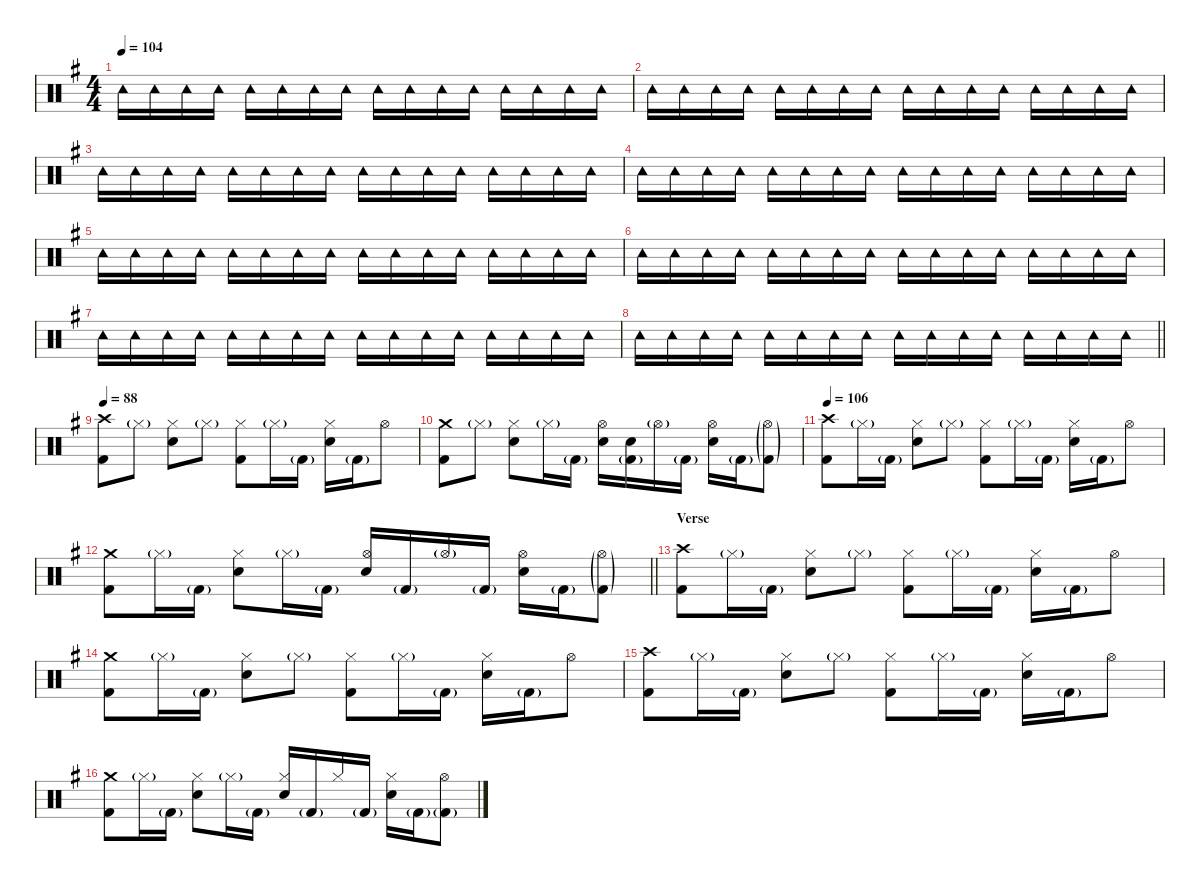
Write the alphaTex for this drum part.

\defaultSystemsLayout 4
\hideDynamics
\bracketExtendMode nobrackets
\singleTrackTrackNamePolicy hidden
\multiTrackTrackNamePolicy hidden
\firstSystemTrackNameMode fullname
\firstSystemTrackNameOrientation horizontal
\otherSystemsTrackNameOrientation horizontal
\track ("Bill" "drm.") {instrument percussion}
\staff {score}
\articulation defaults
\ts (4 4)
\tempo 104
\clef neutral
\ks eminor "Tambourine (hit)"{acc forcenatural}.16{dy mp beam Down} "Tambourine (hit)"{acc forcenatural}.16{dy pp beam Down} "Tambourine (hit)"{acc forcenatural}.16{dy p beam Down} "Tambourine (hit)"{acc forcenatural}.16{dy pp beam Down} "Tambourine (hit)"{acc forcenatural}.16{dy mp beam Down} "Tambourine (hit)"{acc forcenatural}.16{dy pp beam Down} "Tambourine (hit)"{acc forcenatural}.16{dy p beam Down} "Tambourine (hit)"{acc forcenatural}.16{dy pp beam Down} "Tambourine (hit)"{acc forcenatural}.16{dy mp beam Down} "Tambourine (hit)"{acc forcenatural}.16{dy pp beam Down} "Tambourine (hit)"{acc forcenatural}.16{dy p beam Down} "Tambourine (hit)"{acc forcenatural}.16{dy pp beam Down} "Tambourine (hit)"{acc forcenatural}.16{dy mp beam Down} "Tambourine (hit)"{acc forcenatural}.16{dy pp beam Down} "Tambourine (hit)"{acc forcenatural}.16{dy p beam Down} "Tambourine (hit)"{acc forcenatural}.16{dy pp beam Down}
|
"Tambourine (hit)"{acc forcenatural}.16{dy mp beam Down} "Tambourine (hit)"{acc forcenatural}.16{dy pp beam Down} "Tambourine (hit)"{acc forcenatural}.16{dy p beam Down} "Tambourine (hit)"{acc forcenatural}.16{dy pp beam Down} "Tambourine (hit)"{acc forcenatural}.16{dy mp beam Down} "Tambourine (hit)"{acc forcenatural}.16{dy pp beam Down} "Tambourine (hit)"{acc forcenatural}.16{dy p beam Down} "Tambourine (hit)"{acc forcenatural}.16{dy pp beam Down} "Tambourine (hit)"{acc forcenatural}.16{dy mp beam Down} "Tambourine (hit)"{acc forcenatural}.16{dy pp beam Down} "Tambourine (hit)"{acc forcenatural}.16{dy p beam Down} "Tambourine (hit)"{acc forcenatural}.16{dy pp beam Down} "Tambourine (hit)"{acc forcenatural}.16{dy mp beam Down} "Tambourine (hit)"{acc forcenatural}.16{dy pp beam Down} "Tambourine (hit)"{acc forcenatural}.16{dy p beam Down} "Tambourine (hit)"{acc forcenatural}.16{dy pp beam Down} |
"Tambourine (hit)"{acc forcenatural}.16{dy mp beam Down} "Tambourine (hit)"{acc forcenatural}.16{dy pp beam Down} "Tambourine (hit)"{acc forcenatural}.16{dy p beam Down} "Tambourine (hit)"{acc forcenatural}.16{dy pp beam Down} "Tambourine (hit)"{acc forcenatural}.16{dy mp beam Down} "Tambourine (hit)"{acc forcenatural}.16{dy pp beam Down} "Tambourine (hit)"{acc forcenatural}.16{dy p beam Down} "Tambourine (hit)"{acc forcenatural}.16{dy pp beam Down} "Tambourine (hit)"{acc forcenatural}.16{dy mp beam Down} "Tambourine (hit)"{acc forcenatural}.16{dy pp beam Down} "Tambourine (hit)"{acc forcenatural}.16{dy p beam Down} "Tambourine (hit)"{acc forcenatural}.16{dy pp beam Down} "Tambourine (hit)"{acc forcenatural}.16{dy mp beam Down} "Tambourine (hit)"{acc forcenatural}.16{dy pp beam Down} "Tambourine (hit)"{acc forcenatural}.16{dy p beam Down} "Tambourine (hit)"{acc forcenatural}.16{dy pp beam Down} |
"Tambourine (hit)"{acc forcenatural}.16{dy mp beam Down} "Tambourine (hit)"{acc forcenatural}.16{dy pp beam Down} "Tambourine (hit)"{acc forcenatural}.16{dy p beam Down} "Tambourine (hit)"{acc forcenatural}.16{dy pp beam Down} "Tambourine (hit)"{acc forcenatural}.16{dy mp beam Down} "Tambourine (hit)"{acc forcenatural}.16{dy pp beam Down} "Tambourine (hit)"{acc forcenatural}.16{dy p beam Down} "Tambourine (hit)"{acc forcenatural}.16{dy pp beam Down} "Tambourine (hit)"{acc forcenatural}.16{dy mp beam Down} "Tambourine (hit)"{acc forcenatural}.16{dy pp beam Down} "Tambourine (hit)"{acc forcenatural}.16{dy p beam Down} "Tambourine (hit)"{acc forcenatural}.16{dy pp beam Down} "Tambourine (hit)"{acc forcenatural}.16{dy mp beam Down} "Tambourine (hit)"{acc forcenatural}.16{dy pp beam Down} "Tambourine (hit)"{acc forcenatural}.16{dy p beam Down} "Tambourine (hit)"{acc forcenatural}.16{dy pp beam Down} |
"Tambourine (hit)"{acc forcenatural}.16{dy mp beam Down} "Tambourine (hit)"{acc forcenatural}.16{dy pp beam Down} "Tambourine (hit)"{acc forcenatural}.16{dy p beam Down} "Tambourine (hit)"{acc forcenatural}.16{dy pp beam Down} "Tambourine (hit)"{acc forcenatural}.16{dy mp beam Down} "Tambourine (hit)"{acc forcenatural}.16{dy pp beam Down} "Tambourine (hit)"{acc forcenatural}.16{dy p beam Down} "Tambourine (hit)"{acc forcenatural}.16{dy pp beam Down} "Tambourine (hit)"{acc forcenatural}.16{dy mp beam Down} "Tambourine (hit)"{acc forcenatural}.16{dy pp beam Down} "Tambourine (hit)"{acc forcenatural}.16{dy p beam Down} "Tambourine (hit)"{acc forcenatural}.16{dy pp beam Down} "Tambourine (hit)"{acc forcenatural}.16{dy mp beam Down} "Tambourine (hit)"{acc forcenatural}.16{dy pp beam Down} "Tambourine (hit)"{acc forcenatural}.16{dy p beam Down} "Tambourine (hit)"{acc forcenatural}.16{dy pp beam Down} |
"Tambourine (hit)"{acc forcenatural}.16{dy mp beam Down} "Tambourine (hit)"{acc forcenatural}.16{dy pp beam Down} "Tambourine (hit)"{acc forcenatural}.16{dy p beam Down} "Tambourine (hit)"{acc forcenatural}.16{dy pp beam Down} "Tambourine (hit)"{acc forcenatural}.16{dy mp beam Down} "Tambourine (hit)"{acc forcenatural}.16{dy pp beam Down} "Tambourine (hit)"{acc forcenatural}.16{dy p beam Down} "Tambourine (hit)"{acc forcenatural}.16{dy pp beam Down} "Tambourine (hit)"{acc forcenatural}.16{dy mp beam Down} "Tambourine (hit)"{acc forcenatural}.16{dy pp beam Down} "Tambourine (hit)"{acc forcenatural}.16{dy p beam Down} "Tambourine (hit)"{acc forcenatural}.16{dy pp beam Down} "Tambourine (hit)"{acc forcenatural}.16{dy mp beam Down} "Tambourine (hit)"{acc forcenatural}.16{dy pp beam Down} "Tambourine (hit)"{acc forcenatural}.16{dy p beam Down} "Tambourine (hit)"{acc forcenatural}.16{dy pp beam Down} |
"Tambourine (hit)"{acc forcenatural}.16{dy mp beam Down} "Tambourine (hit)"{acc forcenatural}.16{dy pp beam Down} "Tambourine (hit)"{acc forcenatural}.16{dy p beam Down} "Tambourine (hit)"{acc forcenatural}.16{dy pp beam Down} "Tambourine (hit)"{acc forcenatural}.16{dy mp beam Down} "Tambourine (hit)"{acc forcenatural}.16{dy pp beam Down} "Tambourine (hit)"{acc forcenatural}.16{dy p beam Down} "Tambourine (hit)"{acc forcenatural}.16{dy pp beam Down} "Tambourine (hit)"{acc forcenatural}.16{dy mp beam Down} "Tambourine (hit)"{acc forcenatural}.16{dy pp beam Down} "Tambourine (hit)"{acc forcenatural}.16{dy p beam Down} "Tambourine (hit)"{acc forcenatural}.16{dy pp beam Down} "Tambourine (hit)"{acc forcenatural}.16{dy mp beam Down} "Tambourine (hit)"{acc forcenatural}.16{dy pp beam Down} "Tambourine (hit)"{acc forcenatural}.16{dy p beam Down} "Tambourine (hit)"{acc forcenatural}.16{dy pp beam Down} |
\barLineRight lightlight "Tambourine (hit)"{acc forcenatural}.16{dy mp beam Down} "Tambourine (hit)"{acc forcenatural}.16{dy pp beam Down} "Tambourine (hit)"{acc forcenatural}.16{dy p beam Down} "Tambourine (hit)"{acc forcenatural}.16{dy pp beam Down} "Tambourine (hit)"{acc forcenatural}.16{dy mp beam Down} "Tambourine (hit)"{acc forcenatural}.16{dy pp beam Down} "Tambourine (hit)"{acc forcenatural}.16{dy p beam Down} "Tambourine (hit)"{acc forcenatural}.16{dy pp beam Down} "Tambourine (hit)"{acc forcenatural}.16{dy mp beam Down} "Tambourine (hit)"{acc forcenatural}.16{dy pp beam Down} "Tambourine (hit)"{acc forcenatural}.16{dy p beam Down} "Tambourine (hit)"{acc forcenatural}.16{dy pp beam Down} "Tambourine (hit)"{acc forcenatural}.16{dy mp beam Down} "Tambourine (hit)"{acc forcenatural}.16{dy pp beam Down} "Tambourine (hit)"{acc forcenatural}.16{dy p beam Down} "Tambourine (hit)"{acc forcenatural}.16{dy pp beam Down}
|
\section ("" "")
\tempo 88
("Crash high (hit)"{acc forcenatural} "Kick (hit) 2"{acc forcenatural}).8{dy f beam Down} "Hi-Hat (closed)"{g acc forcenatural}.8{dy mf beam Down} ("Hi-Hat (closed)"{acc forcenatural} "Snare (hit) 2"{acc forcenatural}).8{dy f beam Down} "Hi-Hat (closed)"{g acc forcenatural}.8{dy mf beam Down} ("Hi-Hat (closed)"{acc forcenatural} "Kick (hit) 2"{acc forcenatural}).8{dy f beam Down} "Hi-Hat (closed)"{g acc forcenatural}.16{dy mf beam Down} "Kick (hit) 2"{g acc forcenatural}.16{beam Down} ("Hi-Hat (closed)"{acc forcenatural} "Snare (hit) 2"{acc forcenatural}).16{dy f beam Down} "Kick (hit) 2"{g acc forcenatural}.16{dy mf beam Down} "Hi-Hat (open)"{acc forcenatural}.8{beam Down} |
("Crash medium (hit)"{acc forcenatural} "Kick (hit) 2"{acc forcenatural}).8{dy f beam Down} "Hi-Hat (closed)"{g acc forcenatural}.8{dy mf beam Down} ("Hi-Hat (closed)"{acc forcenatural} "Snare (hit) 2"{acc forcenatural}).8{dy f beam Down} "Hi-Hat (closed)"{g acc forcenatural}.16{dy mf beam Down} "Kick (hit) 2"{g acc forcenatural}.16{beam Down} ("Hi-Hat (open)"{acc forcenatural} "Snare (hit) 2"{acc forcenatural}).16{dy f beam Down} ("Snare (hit) 2"{acc forcenatural} "Kick (hit) 2"{g acc forcenatural}).16{beam Down} "Hi-Hat (open)"{g acc forcenatural}.16{dy mf beam Down} "Kick (hit) 2"{g acc forcenatural}.16{beam Down} ("Hi-Hat (open)"{acc forcenatural} "Snare (hit) 2"{acc forcenatural}).16{dy f beam Down} "Kick (hit) 2"{g acc forcenatural}.16{dy mf beam Down} ("Hi-Hat (open)"{g acc forcenatural} "Kick (hit) 2"{g acc forcenatural}).8{beam Down} |
\tempo 106
("Crash high (hit)"{acc forcenatural} "Kick (hit) 2"{acc forcenatural}).8{dy f beam Down} "Hi-Hat (closed)"{g acc forcenatural}.16{dy mf beam Down} "Kick (hit) 2"{g acc forcenatural}.16{beam Down} ("Hi-Hat (closed)"{acc forcenatural} "Snare (hit) 2"{acc forcenatural}).8{dy f beam Down} "Hi-Hat (closed)"{g acc forcenatural}.8{dy mf beam Down} ("Hi-Hat (closed)"{acc forcenatural} "Kick (hit) 2"{acc forcenatural}).8{dy f beam Down} "Hi-Hat (closed)"{g acc forcenatural}.16{dy mf beam Down} "Kick (hit) 2"{g acc forcenatural}.16{beam Down} ("Hi-Hat (closed)"{acc forcenatural} "Snare (hit) 2"{acc forcenatural}).16{dy f beam Down} "Kick (hit) 2"{g acc forcenatural}.16{dy mf beam Down} "Hi-Hat (open)"{acc forcenatural}.8{dy f beam Down} |
\barLineRight lightlight
("Crash medium (hit)"{acc forcenatural} "Kick (hit) 2"{acc forcenatural}).8{beam Down} "Hi-Hat (closed)"{g acc forcenatural}.16{dy mf beam Down} "Kick (hit) 2"{g acc forcenatural}.16{beam Down} ("Hi-Hat (closed)"{acc forcenatural} "Snare (hit) 2"{acc forcenatural}).8{dy f beam Down} "Hi-Hat (closed)"{g acc forcenatural}.16{dy mf beam Down} "Kick (hit) 2"{g acc forcenatural}.16{beam Down} ("Hi-Hat (open)"{acc forcenatural} "Snare (hit) 2"{acc forcenatural}).16{dy f beam Up} "Kick (hit) 2"{g acc forcenatural}.16{dy mf beam Up} "Hi-Hat (open)"{g acc forcenatural}.16{beam Up} "Kick (hit) 2"{g acc forcenatural}.16{beam Up} ("Hi-Hat (open)"{acc forcenatural} "Snare (hit) 2"{acc forcenatural}).16{dy f beam Down} "Kick (hit) 2"{g acc forcenatural}.16{dy mf beam Down} ("Hi-Hat (open)"{g acc forcenatural} "Kick (hit) 2"{g acc forcenatural}).8{beam Down} |
\section ("" "Verse")
("Crash high (hit)"{acc forcenatural} "Kick (hit) 2"{acc forcenatural}).8{dy f beam Down} "Hi-Hat (closed)"{g acc forcenatural}.16{dy mf beam Down} "Kick (hit) 2"{g acc forcenatural}.16{beam Down} ("Hi-Hat (closed)"{acc forcenatural} "Snare (hit) 2"{acc forcenatural}).8{dy f beam Down} "Hi-Hat (closed)"{g acc forcenatural}.8{dy mf beam Down} ("Hi-Hat (closed)"{acc forcenatural} "Kick (hit) 2"{acc forcenatural}).8{dy f beam Down} "Hi-Hat (closed)"{g acc forcenatural}.16{dy mf beam Down} "Kick (hit) 2"{g acc forcenatural}.16{beam Down} ("Hi-Hat (closed)"{acc forcenatural} "Snare (hit) 2"{acc forcenatural}).16{dy f beam Down} "Kick (hit) 2"{g acc forcenatural}.16{dy mf beam Down} "Hi-Hat (open)"{acc forcenatural}.8{dy f beam Down} |
("Crash medium (hit)"{acc forcenatural} "Kick (hit) 2"{acc forcenatural}).8{beam Down} "Hi-Hat (closed)"{g acc forcenatural}.16{dy mf beam Down} "Kick (hit) 2"{g acc forcenatural}.16{beam Down} ("Hi-Hat (closed)"{acc forcenatural} "Snare (hit) 2"{acc forcenatural}).8{dy f beam Down} "Hi-Hat (closed)"{g acc forcenatural}.8{dy mf beam Down} ("Hi-Hat (closed)"{acc forcenatural} "Kick (hit) 2"{acc forcenatural}).8{dy f beam Down} "Hi-Hat (closed)"{g acc forcenatural}.16{dy mf beam Down} "Kick (hit) 2"{g acc forcenatural}.16{beam Down} ("Hi-Hat (closed)"{acc forcenatural} "Snare (hit) 2"{acc forcenatural}).16{dy f beam Down} "Kick (hit) 2"{g acc forcenatural}.16{dy mf beam Down} "Hi-Hat (open)"{acc forcenatural}.8{dy f beam Down} |
("Crash high (hit)"{acc forcenatural} "Kick (hit) 2"{acc forcenatural}).8{beam Down} "Hi-Hat (closed)"{g acc forcenatural}.16{dy mf beam Down} "Kick (hit) 2"{g acc forcenatural}.16{beam Down} ("Hi-Hat (closed)"{acc forcenatural} "Snare (hit) 2"{acc forcenatural}).8{dy f beam Down} "Hi-Hat (closed)"{g acc forcenatural}.8{dy mf beam Down} ("Hi-Hat (closed)"{acc forcenatural} "Kick (hit) 2"{acc forcenatural}).8{dy f beam Down} "Hi-Hat (closed)"{g acc forcenatural}.16{dy mf beam Down} "Kick (hit) 2"{g acc forcenatural}.16{beam Down} ("Hi-Hat (closed)"{acc forcenatural} "Snare (hit) 2"{acc forcenatural}).16{dy f beam Down} "Kick (hit) 2"{g acc forcenatural}.16{dy mf beam Down} "Hi-Hat (open)"{acc forcenatural}.8{dy f beam Down} |
("Crash medium (hit)"{acc forcenatural} "Kick (hit) 2"{acc forcenatural}).8{beam Down} "Hi-Hat (closed)"{g acc forcenatural}.16{dy mf beam Down} "Kick (hit) 2"{g acc forcenatural}.16{beam Down} ("Hi-Hat (closed)"{acc forcenatural} "Snare (hit) 2"{acc forcenatural}).8{dy f beam Down} "Hi-Hat (closed)"{g acc forcenatural}.16{dy mf beam Down} "Kick (hit) 2"{g acc forcenatural}.16{beam Down} ("Hi-Hat (closed)"{acc forcenatural} "Snare (hit) 2"{acc forcenatural}).16{dy f beam Up} "Kick (hit) 2"{g acc forcenatural}.16{dy mf beam Up} "Hi-Hat (closed)"{acc forcenatural}.16{dy f beam Up} "Kick (hit) 2"{g acc forcenatural}.16{dy mf beam Up} ("Hi-Hat (closed)"{acc forcenatural} "Snare (hit) 2"{acc forcenatural}).16{dy f beam Down} "Kick (hit) 2"{g acc forcenatural}.16{dy mf beam Down} ("Hi-Hat (open)"{acc forcenatural} "Kick (hit) 2"{g acc forcenatural}).8{dy f beam Down}
